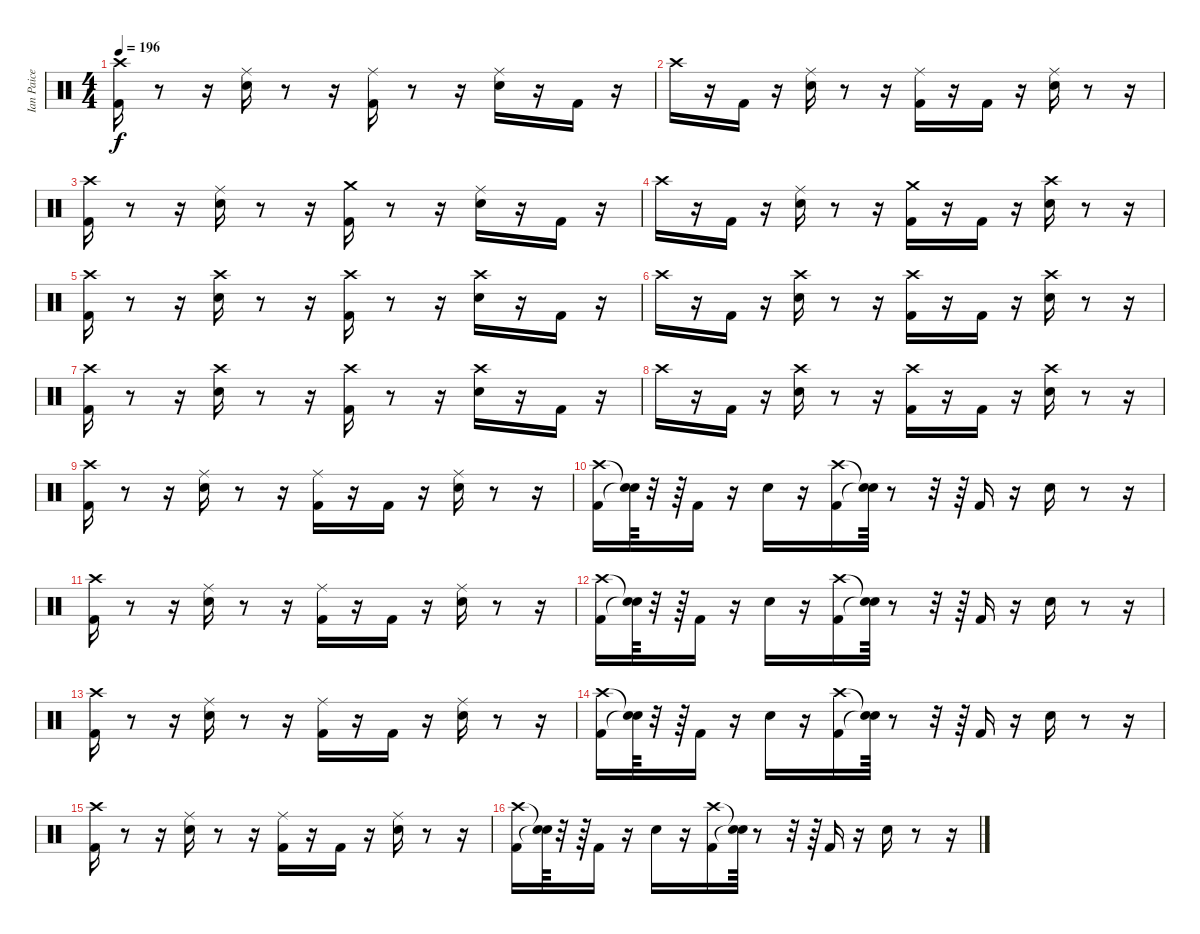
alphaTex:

\track ("Ian Paice" "Ian Paice") {instrument percussion}
\staff {score}
\articulation defaults
\ts (4 4)
\tempo 196
\clef neutral
\ks c
("Kick (hit) 2" "Crash high (hit)").16{dy f} r.8 r.16 ("Snare (hit) 2" "Ride (middle)").16 r.8 r.16 ("Kick (hit) 2" "Ride (middle)").16 r.8 r.16 ("Snare (hit) 2" "Ride (middle)").16 r.16 "Kick (hit) 2".16 r.16 |
"Crash high (hit)".16 r.16 "Kick (hit) 2".16 r.16 ("Snare (hit) 2" "Ride (middle)").16 r.8 r.16 ("Kick (hit) 2" "Ride (middle)").16 r.16 "Kick (hit) 2".16 r.16 ("Snare (hit) 2" "Ride (middle)").16 r.8 r.16 |
("Kick (hit) 2" "Crash high (hit)").16 r.8 r.16 ("Snare (hit) 2" "Ride (middle)").16 r.8 r.16 ("Kick (hit) 2" "Crash medium (hit)").16 r.8 r.16 ("Snare (hit) 2" "Ride (middle)").16 r.16 "Kick (hit) 2".16 r.16 |
"Crash high (hit)".16 r.16 "Kick (hit) 2".16 r.16 ("Snare (hit) 2" "Ride (middle)").16 r.8 r.16 ("Kick (hit) 2" "Crash medium (hit)").16 r.16 "Kick (hit) 2".16 r.16 ("Crash high (hit)" "Snare (hit) 2").16 r.8 r.16 |
("Kick (hit) 2" "Crash high (hit)").16 r.8 r.16 ("Crash high (hit)" "Snare (hit) 2").16 r.8 r.16 ("Crash high (hit)" "Kick (hit) 2").16 r.8 r.16 ("Crash high (hit)" "Snare (hit) 2").16 r.16 "Kick (hit) 2".16 r.16 |
"Crash high (hit)".16 r.16 "Kick (hit) 2".16 r.16 ("Crash high (hit)" "Snare (hit) 2").16 r.8 r.16 ("Crash high (hit)" "Kick (hit) 2").16 r.16 "Kick (hit) 2".16 r.16 ("Crash high (hit)" "Snare (hit) 2").16 r.8 r.16 |
("Kick (hit) 2" "Crash high (hit)").16 r.8 r.16 ("Crash high (hit)" "Snare (hit) 2").16 r.8 r.16 ("Crash high (hit)" "Kick (hit) 2").16 r.8 r.16 ("Crash high (hit)" "Snare (hit) 2").16 r.16 "Kick (hit) 2".16 r.16 |
"Crash high (hit)".16 r.16 "Kick (hit) 2".16 r.16 ("Crash high (hit)" "Snare (hit) 2").16 r.8 r.16 ("Crash high (hit)" "Kick (hit) 2").16 r.16 "Kick (hit) 2".16 r.16 ("Crash high (hit)" "Snare (hit) 2").16 r.8 r.16 |
("Crash high (hit)" "Kick (hit) 2").16 r.8 r.16 ("Snare (hit) 2" "Ride (middle)").16 r.8 r.16 ("Kick (hit) 2" "Ride (middle)").16 r.16 "Kick (hit) 2".16 r.16 ("Snare (hit) 2" "Ride (middle)").16 r.8 r.16 |
("Crash high (hit)" "Kick (hit) 2").16 ("Snare (hit)"{t} "Snare (hit)"{t}).64 r.32 r.64 "Kick (hit) 2".16 r.16 "Snare (hit) 2".16 r.16 ("Crash high (hit)" "Kick (hit) 2").16 ("Snare (hit)"{t} "Snare (hit)"{t}).64 r.8 r.32 r.64 "Kick (hit) 2".16 r.16 "Snare (hit) 2".16 r.8 r.16 |
("Kick (hit) 2" "Crash high (hit)").16 r.8 r.16 ("Snare (hit) 2" "Ride (middle)").16 r.8 r.16 ("Kick (hit) 2" "Ride (middle)").16 r.16 "Kick (hit) 2".16 r.16 ("Snare (hit) 2" "Ride (middle)").16 r.8 r.16 |
("Crash high (hit)" "Kick (hit) 2").16 ("Snare (hit)"{t} "Snare (hit)"{t}).64 r.32 r.64 "Kick (hit) 2".16 r.16 "Snare (hit) 2".16 r.16 ("Crash high (hit)" "Kick (hit) 2").16 ("Snare (hit)"{t} "Snare (hit)"{t}).64 r.8 r.32 r.64 "Kick (hit) 2".16 r.16 "Snare (hit) 2".16 r.8 r.16 |
("Crash high (hit)" "Kick (hit) 2").16 r.8 r.16 ("Snare (hit) 2" "Ride (middle)").16 r.8 r.16 ("Kick (hit) 2" "Ride (middle)").16 r.16 "Kick (hit) 2".16 r.16 ("Snare (hit) 2" "Ride (middle)").16 r.8 r.16 |
("Crash high (hit)" "Kick (hit) 2").16 ("Snare (hit)"{t} "Snare (hit)"{t}).64 r.32 r.64 "Kick (hit) 2".16 r.16 "Snare (hit) 2".16 r.16 ("Crash high (hit)" "Kick (hit) 2").16 ("Snare (hit)"{t} "Snare (hit)"{t}).64 r.8 r.32 r.64 "Kick (hit) 2".16 r.16 "Snare (hit) 2".16 r.8 r.16 |
("Kick (hit) 2" "Crash high (hit)").16 r.8 r.16 ("Snare (hit) 2" "Ride (middle)").16 r.8 r.16 ("Kick (hit) 2" "Ride (middle)").16 r.16 "Kick (hit) 2".16 r.16 ("Snare (hit) 2" "Ride (middle)").16 r.8 r.16 |
("Crash high (hit)" "Kick (hit) 2").16 ("Snare (hit)"{t} "Snare (hit)"{t}).64 r.32 r.64 "Kick (hit) 2".16 r.16 "Snare (hit) 2".16 r.16 ("Crash high (hit)" "Kick (hit) 2").16 ("Snare (hit)"{t} "Snare (hit)"{t}).64 r.8 r.32 r.64 "Kick (hit) 2".16 r.16 "Snare (hit) 2".16 r.8 r.16
